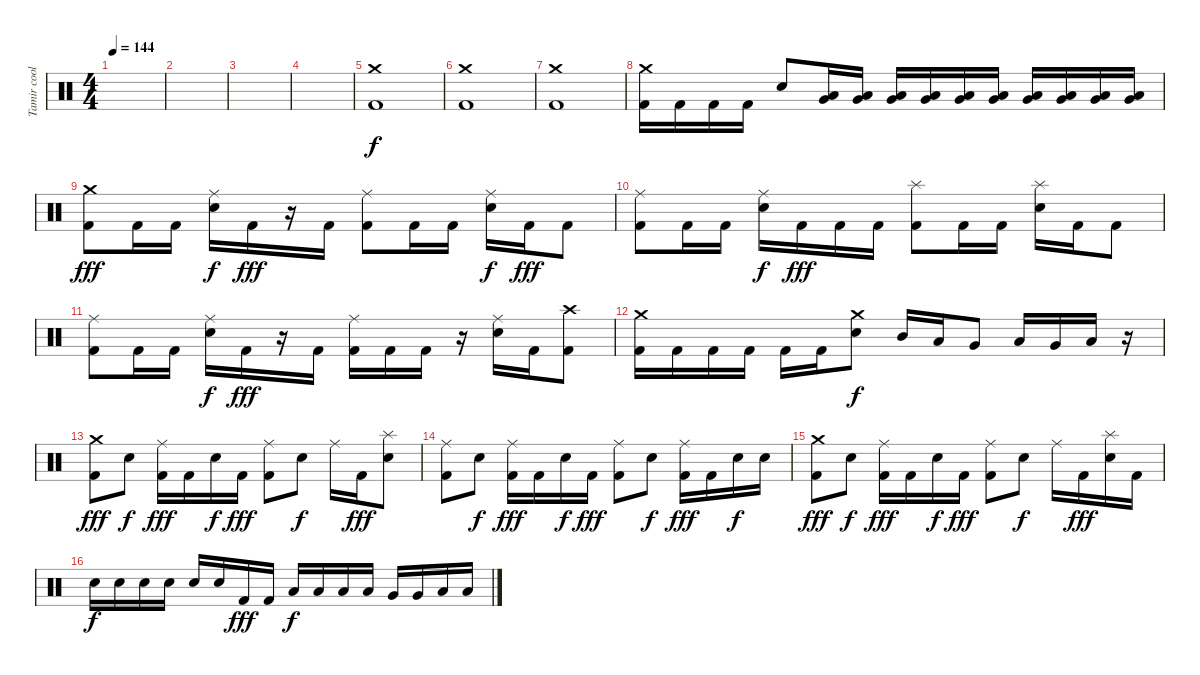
\track ("Tamir coolberg" "Tamir cool") {instrument percussion}
\staff {score}
\articulation defaults
\ts (4 4)
\tempo 144
\clef neutral
\ks c
|
|
|
|
("Crash medium (hit)" "Kick (hit) 2").1 |
("Crash medium (hit)" "Kick (hit) 2").1 |
("Crash medium (hit)" "Kick (hit) 2").1 |
("Crash medium (hit)" "Kick (hit) 2").16 "Kick (hit) 2".16 "Kick (hit) 2".16 "Kick (hit) 2".16 "Snare (hit) 2".8{dy f} ("Very Low Tom (hit)" "Low Floor Tom (hit)").16 ("Very Low Tom (hit)" "Low Floor Tom (hit)").16 ("Very Low Tom (hit)" "Low Floor Tom (hit)").16 ("Very Low Tom (hit)" "Low Floor Tom (hit)").16 ("Very Low Tom (hit)" "Low Floor Tom (hit)").16 ("Very Low Tom (hit)" "Low Floor Tom (hit)").16 ("Very Low Tom (hit)" "Low Floor Tom (hit)").16 ("Very Low Tom (hit)" "Low Floor Tom (hit)").16 ("Very Low Tom (hit)" "Low Floor Tom (hit)").16 ("Very Low Tom (hit)" "Low Floor Tom (hit)").16 |
("Crash medium (hit)" "Kick (hit) 2").8{dy fff} "Kick (hit) 2".16 "Kick (hit) 2".16 ("Ride (middle)" "Electric Snare (hit)").16{dy f} "Kick (hit) 2".16{dy fff} r.16 "Kick (hit) 2".16 ("Ride (middle)" "Kick (hit) 2").8 "Kick (hit) 2".16 "Kick (hit) 2".16 ("Ride (middle)" "Electric Snare (hit)").16{dy f} "Kick (hit) 2".16{dy fff} "Kick (hit) 2".8 |
("Ride (middle)" "Kick (hit) 2").8 "Kick (hit) 2".16 "Kick (hit) 2".16 ("Ride (middle)" "Electric Snare (hit)").16{dy f} "Kick (hit) 2".16{dy fff} "Kick (hit) 2".16 "Kick (hit) 2".16 ("Splash (hit)" "Kick (hit) 2").8 "Kick (hit) 2".16 "Kick (hit) 2".16 ("Splash (hit)" "Electric Snare (hit)").16 "Kick (hit) 2".16 "Kick (hit) 2".8 |
("Ride (middle)" "Kick (hit) 2").8 "Kick (hit) 2".16 "Kick (hit) 2".16 ("Ride (middle)" "Electric Snare (hit)").16{dy f} "Kick (hit) 2".16{dy fff} r.16 "Kick (hit) 2".16 ("Ride (middle)" "Kick (hit) 2").16 "Kick (hit) 2".16 "Kick (hit) 2".16 r.16 ("Ride (middle)" "Electric Snare (hit)").16 "Kick (hit) 2".16 ("Crash high (hit)" "Kick (hit) 2").8 |
("Crash medium (hit)" "Kick (hit) 2").16 "Kick (hit) 2".16 "Kick (hit) 2".16 "Kick (hit) 2".16 "Kick (hit) 2".16 "Kick (hit) 2".16 ("Crash medium (hit)" "Electric Snare (hit)").8{dy f} "Mid Tom (hit)".16 "Low Tom (hit)".16 "Very Low Tom (hit)".8 "Low Tom (hit)".16 "Very Low Tom (hit)".16 "Low Floor Tom (hit)".16 r.16 |
("Crash medium (hit)" "Kick (hit) 2").8{dy fff} "Snare (hit) 2".8{dy f} ("Ride (middle)" "Kick (hit) 2").16{dy fff} "Kick (hit) 2".16 "Snare (hit) 2".16{dy f} "Kick (hit) 2".16{dy fff} ("Ride (middle)" "Kick (hit) 2").8 "Snare (hit) 2".8{dy f} "Ride (middle)".16 "Kick (hit) 2".16{dy fff} ("Splash (hit)" "Snare (hit) 2").8 |
("Ride (middle)" "Kick (hit) 2").8 "Snare (hit) 2".8{dy f} ("Ride (middle)" "Kick (hit) 2").16{dy fff} "Kick (hit) 2".16 "Snare (hit) 2".16{dy f} "Kick (hit) 2".16{dy fff} ("Ride (middle)" "Kick (hit) 2").8 "Snare (hit) 2".8{dy f} ("Ride (middle)" "Kick (hit) 2").16{dy fff} "Kick (hit) 2".16 "Snare (hit) 2".16{dy f} "Snare (hit) 2".16 |
("Crash medium (hit)" "Kick (hit) 2").8{dy fff} "Snare (hit) 2".8{dy f} ("Ride (middle)" "Kick (hit) 2").16{dy fff} "Kick (hit) 2".16 "Snare (hit) 2".16{dy f} "Kick (hit) 2".16{dy fff} ("Ride (middle)" "Kick (hit) 2").8 "Snare (hit) 2".8{dy f} "Ride (middle)".16 "Kick (hit) 2".16{dy fff} ("Splash (hit)" "Snare (hit) 2").16 "Kick (hit) 2".16 |
"Snare (hit) 2".16{dy f} "Snare (hit) 2".16 "Snare (hit) 2".16 "Snare (hit) 2".16 "Snare (hit) 2".16 "Snare (hit) 2".16 "Kick (hit) 2".16{dy fff} "Kick (hit) 2".16 "Low Tom (hit)".16{dy f} "Low Tom (hit)".16 "Low Tom (hit)".16 "Low Tom (hit)".16 "Very Low Tom (hit)".16 "Very Low Tom (hit)".16 "Low Floor Tom (hit)".16 "Low Floor Tom (hit)".16
